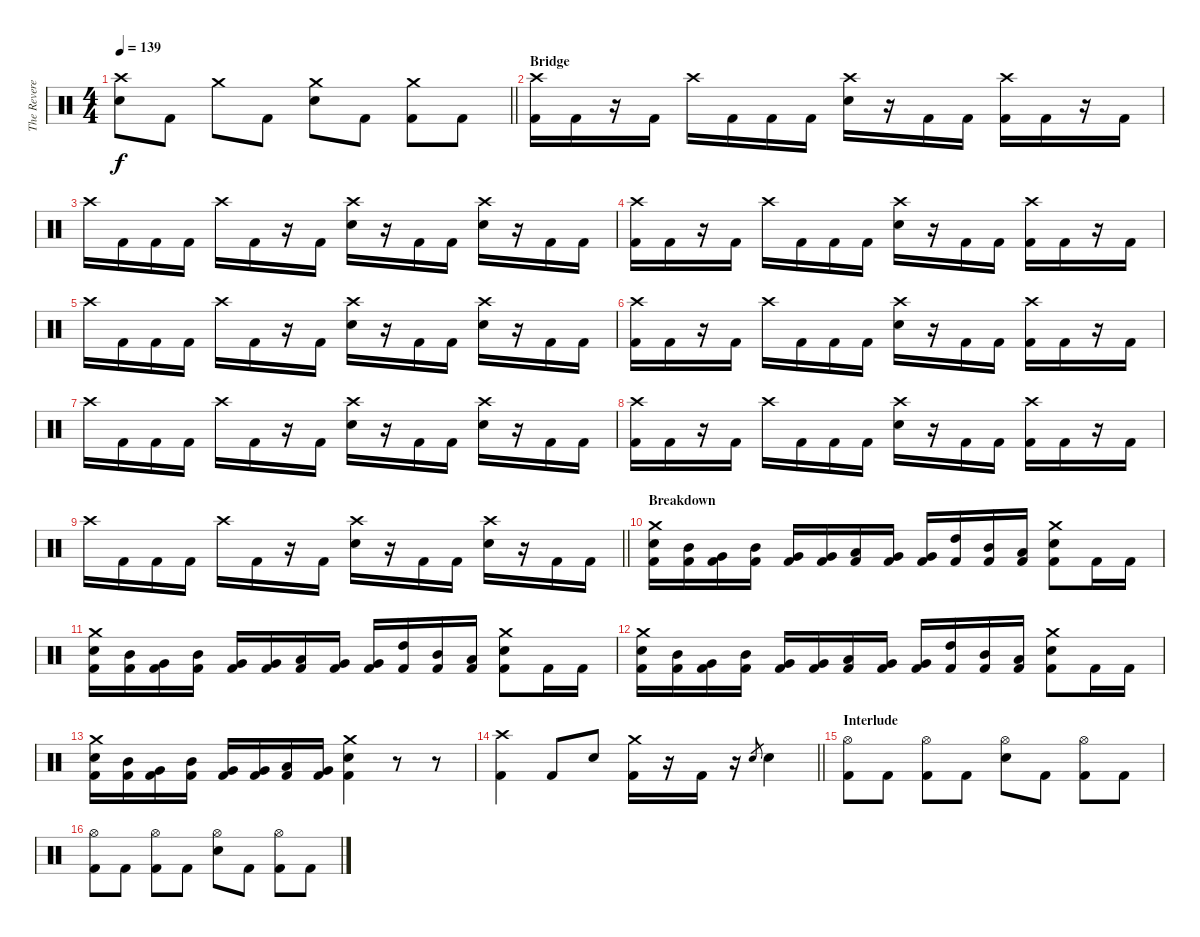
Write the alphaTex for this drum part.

\track ("The Reverend" "The Revere") {instrument percussion}
\staff {score}
\articulation defaults
\ts (4 4)
\tempo 139
\clef neutral
\barLineRight lightlight
\ks c
("Crash high (hit)" "Electric Snare (hit)").8{dy f} "Kick (hit) 2".8 "Crash medium (hit)".8 "Kick (hit) 2".8 ("Crash medium (hit)" "Electric Snare (hit)").8 "Kick (hit) 2".8 ("Crash medium (hit)" "Kick (hit) 2").8 "Kick (hit) 2".8 |
\section ("" "Bridge")
("Crash high (hit)" "Kick (hit) 2").16 "Kick (hit) 2".16 r.16 "Kick (hit) 2".16 "Crash high (hit)".16 "Kick (hit) 2".16 "Kick (hit) 2".16 "Kick (hit) 2".16 ("Crash high (hit)" "Electric Snare (hit)").16 r.16 "Kick (hit) 2".16 "Kick (hit) 2".16 ("Crash high (hit)" "Kick (hit) 2").16 "Kick (hit) 2".16 r.16 "Kick (hit) 2".16 |
"Crash high (hit)".16 "Kick (hit) 2".16 "Kick (hit) 2".16 "Kick (hit) 2".16 "Crash high (hit)".16 "Kick (hit) 2".16 r.16 "Kick (hit) 2".16 ("Crash high (hit)" "Electric Snare (hit)").16 r.16 "Kick (hit) 2".16 "Kick (hit) 2".16 ("Crash high (hit)" "Electric Snare (hit)").16 r.16 "Kick (hit) 2".16 "Kick (hit) 2".16 |
("Crash high (hit)" "Kick (hit) 2").16 "Kick (hit) 2".16 r.16 "Kick (hit) 2".16 "Crash high (hit)".16 "Kick (hit) 2".16 "Kick (hit) 2".16 "Kick (hit) 2".16 ("Crash high (hit)" "Electric Snare (hit)").16 r.16 "Kick (hit) 2".16 "Kick (hit) 2".16 ("Crash high (hit)" "Kick (hit) 2").16 "Kick (hit) 2".16 r.16 "Kick (hit) 2".16 |
"Crash high (hit)".16 "Kick (hit) 2".16 "Kick (hit) 2".16 "Kick (hit) 2".16 "Crash high (hit)".16 "Kick (hit) 2".16 r.16 "Kick (hit) 2".16 ("Crash high (hit)" "Electric Snare (hit)").16 r.16 "Kick (hit) 2".16 "Kick (hit) 2".16 ("Crash high (hit)" "Electric Snare (hit)").16 r.16 "Kick (hit) 2".16 "Kick (hit) 2".16 |
("Crash high (hit)" "Kick (hit) 2").16 "Kick (hit) 2".16 r.16 "Kick (hit) 2".16 "Crash high (hit)".16 "Kick (hit) 2".16 "Kick (hit) 2".16 "Kick (hit) 2".16 ("Crash high (hit)" "Electric Snare (hit)").16 r.16 "Kick (hit) 2".16 "Kick (hit) 2".16 ("Crash high (hit)" "Kick (hit) 2").16 "Kick (hit) 2".16 r.16 "Kick (hit) 2".16 |
"Crash high (hit)".16 "Kick (hit) 2".16 "Kick (hit) 2".16 "Kick (hit) 2".16 "Crash high (hit)".16 "Kick (hit) 2".16 r.16 "Kick (hit) 2".16 ("Crash high (hit)" "Electric Snare (hit)").16 r.16 "Kick (hit) 2".16 "Kick (hit) 2".16 ("Crash high (hit)" "Electric Snare (hit)").16 r.16 "Kick (hit) 2".16 "Kick (hit) 2".16 |
("Crash high (hit)" "Kick (hit) 2").16 "Kick (hit) 2".16 r.16 "Kick (hit) 2".16 "Crash high (hit)".16 "Kick (hit) 2".16 "Kick (hit) 2".16 "Kick (hit) 2".16 ("Crash high (hit)" "Electric Snare (hit)").16 r.16 "Kick (hit) 2".16 "Kick (hit) 2".16 ("Crash high (hit)" "Kick (hit) 2").16 "Kick (hit) 2".16 r.16 "Kick (hit) 2".16 |
\barLineRight lightlight "Crash high (hit)".16 "Kick (hit) 2".16 "Kick (hit) 2".16 "Kick (hit) 2".16 "Crash high (hit)".16 "Kick (hit) 2".16
r.16 "Kick (hit) 2".16 ("Crash high (hit)" "Electric Snare (hit)").16 r.16 "Kick (hit) 2".16 "Kick (hit) 2".16 ("Crash high (hit)" "Electric Snare (hit)").16 r.16 "Kick (hit) 2".16 "Kick (hit) 2".16 |
\section ("" "Breakdown")
("Crash medium (hit)" "Electric Snare (hit)" "Kick (hit) 2").16 ("Mid Tom (hit)" "Kick (hit) 2").16 ("Very Low Tom (hit)" "Kick (hit) 2").16 ("Mid Tom (hit)" "Kick (hit) 2").16 ("Very Low Tom (hit)" "Kick (hit) 2").16 ("Very Low Tom (hit)" "Kick (hit) 2").16 ("Low Tom (hit)" "Kick (hit) 2").16 ("Very Low Tom (hit)" "Kick (hit) 2").16 ("Very Low Tom (hit)" "Kick (hit) 2").16 ("High Tom (hit)" "Kick (hit) 2").16 ("Mid Tom (hit)" "Kick (hit) 2").16 ("Low Tom (hit)" "Kick (hit) 2").16 ("Crash medium (hit)" "Electric Snare (hit)" "Kick (hit) 2").8 "Kick (hit) 2".16 "Kick (hit) 2".16 |
("Crash medium (hit)" "Electric Snare (hit)" "Kick (hit) 2").16 ("Mid Tom (hit)" "Kick (hit) 2").16 ("Very Low Tom (hit)" "Kick (hit) 2").16 ("Mid Tom (hit)" "Kick (hit) 2").16 ("Very Low Tom (hit)" "Kick (hit) 2").16 ("Very Low Tom (hit)" "Kick (hit) 2").16 ("Low Tom (hit)" "Kick (hit) 2").16 ("Very Low Tom (hit)" "Kick (hit) 2").16 ("Very Low Tom (hit)" "Kick (hit) 2").16 ("High Tom (hit)" "Kick (hit) 2").16 ("Mid Tom (hit)" "Kick (hit) 2").16 ("Low Tom (hit)" "Kick (hit) 2").16 ("Crash medium (hit)" "Electric Snare (hit)" "Kick (hit) 2").8 "Kick (hit) 2".16 "Kick (hit) 2".16 |
("Crash medium (hit)" "Electric Snare (hit)" "Kick (hit) 2").16 ("Mid Tom (hit)" "Kick (hit) 2").16 ("Very Low Tom (hit)" "Kick (hit) 2").16 ("Mid Tom (hit)" "Kick (hit) 2").16 ("Very Low Tom (hit)" "Kick (hit) 2").16 ("Very Low Tom (hit)" "Kick (hit) 2").16 ("Low Tom (hit)" "Kick (hit) 2").16 ("Very Low Tom (hit)" "Kick (hit) 2").16 ("Very Low Tom (hit)" "Kick (hit) 2").16 ("High Tom (hit)" "Kick (hit) 2").16 ("Mid Tom (hit)" "Kick (hit) 2").16 ("Low Tom (hit)" "Kick (hit) 2").16 ("Crash medium (hit)" "Electric Snare (hit)" "Kick (hit) 2").8 "Kick (hit) 2".16 "Kick (hit) 2".16 |
("Crash medium (hit)" "Electric Snare (hit)" "Kick (hit) 2").16 ("Mid Tom (hit)" "Kick (hit) 2").16 ("Very Low Tom (hit)" "Kick (hit) 2").16 ("Mid Tom (hit)" "Kick (hit) 2").16 ("Very Low Tom (hit)" "Kick (hit) 2").16 ("Very Low Tom (hit)" "Kick (hit) 2").16 ("Low Tom (hit)" "Kick (hit) 2").16 ("Very Low Tom (hit)" "Kick (hit) 2").16 ("Crash medium (hit)" "Electric Snare (hit)" "Kick (hit) 2").4 r.8 r.8 |
\barLineRight lightlight
("Crash high (hit)" "Kick (hit) 2").4 "Kick (hit) 2".8 "Electric Snare (hit)".8 ("Crash medium (hit)" "Kick (hit) 2").16 r.16 "Kick (hit) 2".16 r.16 "Electric Snare (hit)".8{gr} "Electric Snare (hit)".4 |
\section ("" "Interlude")
("Hi-Hat (open)" "Kick (hit) 2").8 "Kick (hit) 2".8 ("Hi-Hat (open)" "Kick (hit) 2").8 "Kick (hit) 2".8 ("Hi-Hat (open)" "Electric Snare (hit)").8 "Kick (hit) 2".8 ("Hi-Hat (open)" "Kick (hit) 2").8 "Kick (hit) 2".8 |
("Hi-Hat (open)" "Kick (hit) 2").8 "Kick (hit) 2".8 ("Hi-Hat (open)" "Kick (hit) 2").8 "Kick (hit) 2".8 ("Hi-Hat (open)" "Electric Snare (hit)").8 "Kick (hit) 2".8 ("Hi-Hat (open)" "Kick (hit) 2").8 "Kick (hit) 2".8
